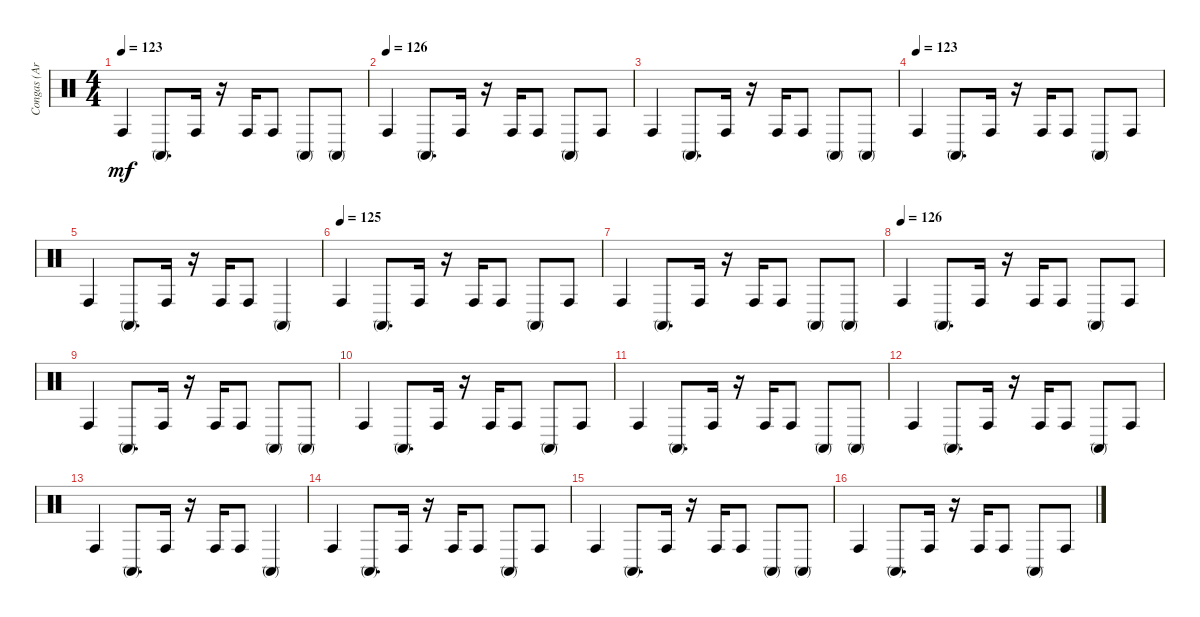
\track ("Congas (Arthur Jenkins)" "Congas (Ar") {instrument percussion}
\staff {score}
\articulation defaults
\ts (4 4)
\tempo 123
\clef neutral
\ks c "Conga high (hit)".4{dy mf} "Conga high (mute)".8{d} "Conga high (hit)".16
r.16 "Conga high (hit)".16 "Conga high (hit)".8 "Conga high (mute)".8 "Conga high (mute)".8 |
\tempo (126)
"Conga high (hit)".4 "Conga high (mute)".8{d} "Conga high (hit)".16 r.16 "Conga high (hit)".16 "Conga high (hit)".8 "Conga high (mute)".8 "Conga high (hit)".8 |
"Conga high (hit)".4 "Conga high (mute)".8{d} "Conga high (hit)".16 r.16 "Conga high (hit)".16 "Conga high (hit)".8 "Conga high (mute)".8 "Conga high (mute)".8 |
\tempo (123)
"Conga high (hit)".4 "Conga high (mute)".8{d} "Conga high (hit)".16 r.16 "Conga high (hit)".16 "Conga high (hit)".8 "Conga high (mute)".8 "Conga high (hit)".8 |
"Conga high (hit)".4 "Conga high (mute)".8{d} "Conga high (hit)".16 r.16 "Conga high (hit)".16 "Conga high (hit)".8 "Conga high (mute)".4 |
\tempo (125)
"Conga high (hit)".4 "Conga high (mute)".8{d} "Conga high (hit)".16 r.16 "Conga high (hit)".16 "Conga high (hit)".8 "Conga high (mute)".8 "Conga high (hit)".8 |
"Conga high (hit)".4 "Conga high (mute)".8{d} "Conga high (hit)".16 r.16 "Conga high (hit)".16 "Conga high (hit)".8 "Conga high (mute)".8 "Conga high (mute)".8 |
\tempo (126)
"Conga high (hit)".4 "Conga high (mute)".8{d} "Conga high (hit)".16 r.16 "Conga high (hit)".16 "Conga high (hit)".8 "Conga high (mute)".8 "Conga high (hit)".8 |
"Conga high (hit)".4 "Conga high (mute)".8{d} "Conga high (hit)".16 r.16 "Conga high (hit)".16 "Conga high (hit)".8 "Conga high (mute)".8 "Conga high (mute)".8 |
"Conga high (hit)".4 "Conga high (mute)".8{d} "Conga high (hit)".16 r.16 "Conga high (hit)".16 "Conga high (hit)".8 "Conga high (mute)".8 "Conga high (hit)".8 |
"Conga high (hit)".4 "Conga high (mute)".8{d} "Conga high (hit)".16 r.16 "Conga high (hit)".16 "Conga high (hit)".8 "Conga high (mute)".8 "Conga high (mute)".8 |
"Conga high (hit)".4 "Conga high (mute)".8{d} "Conga high (hit)".16 r.16 "Conga high (hit)".16 "Conga high (hit)".8 "Conga high (mute)".8 "Conga high (hit)".8 |
"Conga high (hit)".4 "Conga high (mute)".8{d} "Conga high (hit)".16 r.16 "Conga high (hit)".16 "Conga high (hit)".8 "Conga high (mute)".4 |
"Conga high (hit)".4 "Conga high (mute)".8{d} "Conga high (hit)".16 r.16 "Conga high (hit)".16 "Conga high (hit)".8 "Conga high (mute)".8 "Conga high (hit)".8 |
"Conga high (hit)".4 "Conga high (mute)".8{d} "Conga high (hit)".16 r.16 "Conga high (hit)".16 "Conga high (hit)".8 "Conga high (mute)".8 "Conga high (mute)".8 |
"Conga high (hit)".4 "Conga high (mute)".8{d} "Conga high (hit)".16 r.16 "Conga high (hit)".16 "Conga high (hit)".8 "Conga high (mute)".8 "Conga high (hit)".8
